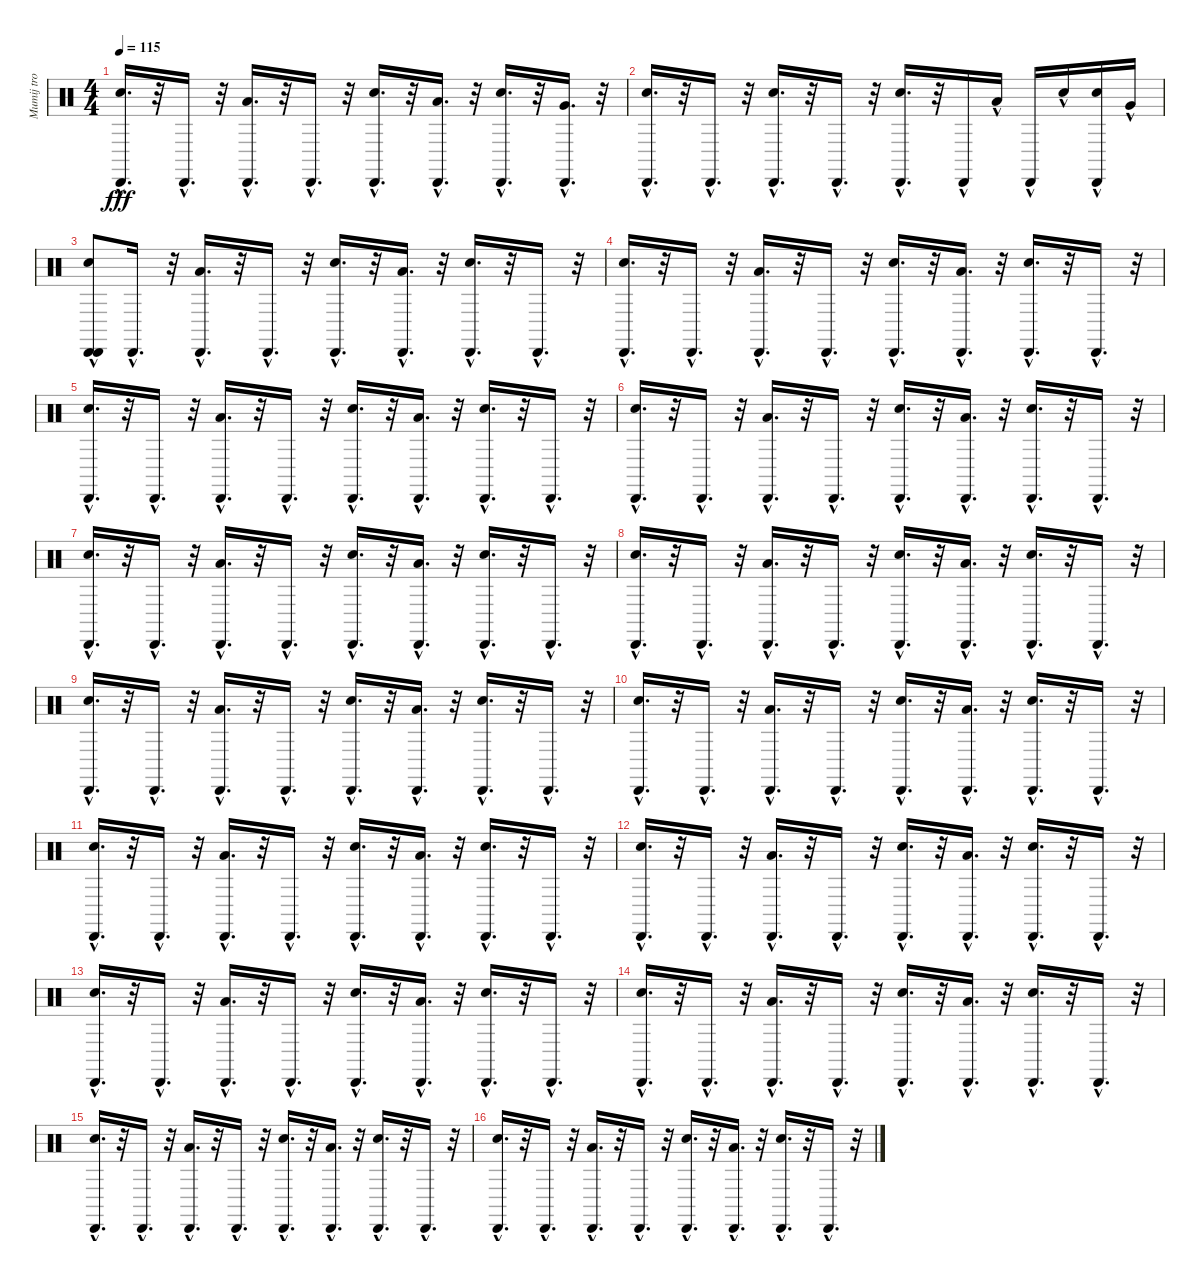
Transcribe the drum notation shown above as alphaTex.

\track (" Mumij troll" " Mumij tro") {instrument percussion}
\staff {score}
\articulation defaults
\ts (4 4)
\tempo 115
\clef neutral
\ks c
("Electric Snare (hit)"{hac} "Cabasa (hit)"{hac}).16{d dy fff} r.32 "Cabasa (hit)"{hac}.16{d} r.32 ("Low Tom (hit)"{hac} "Cabasa (hit)"{hac}).16{d} r.32 "Cabasa (hit)"{hac}.16{d} r.32 ("Electric Snare (hit)"{hac} "Cabasa (hit)"{hac}).16{d} r.32 ("Low Floor Tom (hit)"{hac} "Cabasa (hit)"{hac}).16{d} r.32 ("Snare (hit) 2"{hac} "Cabasa (hit)"{hac}).16{d} r.32 ("Very Low Tom (hit)"{hac} "Cabasa (hit)"{hac}).16{d} r.32 |
("Electric Snare (hit)"{hac} "Cabasa (hit)"{hac}).16{d} r.32 "Cabasa (hit)"{hac}.16{d} r.32 ("Snare (hit) 2"{hac} "Cabasa (hit)"{hac}).16{d} r.32 "Cabasa (hit)"{hac}.16{d} r.32 ("Electric Snare (hit)"{hac} "Cabasa (hit)"{hac}).16{d} r.32 "Cabasa (hit)"{hac}.16 "Low Floor Tom (hit)"{hac}.16 "Cabasa (hit)"{hac}.16 "Snare (hit) 2"{hac}.16 ("Electric Snare (hit)"{hac} "Cabasa (hit)"{hac}).16 "Very Low Tom (hit)"{hac}.16 |
("Cabasa (hit)" "Electric Snare (hit)"{hac} "Cabasa (hit)"{hac}).8 "Cabasa (hit)"{hac}.16{d} r.32 ("Low Tom (hit)"{hac} "Cabasa (hit)"{hac}).16{d} r.32 "Cabasa (hit)"{hac}.16{d} r.32 ("Electric Snare (hit)"{hac} "Cabasa (hit)"{hac}).16{d} r.32 ("Low Floor Tom (hit)"{hac} "Cabasa (hit)"{hac}).16{d} r.32 ("Snare (hit) 2"{hac} "Cabasa (hit)"{hac}).16{d} r.32 "Cabasa (hit)"{hac}.16{d} r.32 |
("Electric Snare (hit)"{hac} "Cabasa (hit)"{hac}).16{d} r.32 "Cabasa (hit)"{hac}.16{d} r.32 ("Low Tom (hit)"{hac} "Cabasa (hit)"{hac}).16{d} r.32 "Cabasa (hit)"{hac}.16{d} r.32 ("Electric Snare (hit)"{hac} "Cabasa (hit)"{hac}).16{d} r.32 ("Low Floor Tom (hit)"{hac} "Cabasa (hit)"{hac}).16{d} r.32 ("Snare (hit) 2"{hac} "Cabasa (hit)"{hac}).16{d} r.32 "Cabasa (hit)"{hac}.16{d} r.32 |
("Electric Snare (hit)"{hac} "Cabasa (hit)"{hac}).16{d} r.32 "Cabasa (hit)"{hac}.16{d} r.32 ("Low Tom (hit)"{hac} "Cabasa (hit)"{hac}).16{d} r.32 "Cabasa (hit)"{hac}.16{d} r.32 ("Electric Snare (hit)"{hac} "Cabasa (hit)"{hac}).16{d} r.32 ("Low Floor Tom (hit)"{hac} "Cabasa (hit)"{hac}).16{d} r.32 ("Snare (hit) 2"{hac} "Cabasa (hit)"{hac}).16{d} r.32 "Cabasa (hit)"{hac}.16{d} r.32 |
("Electric Snare (hit)"{hac} "Cabasa (hit)"{hac}).16{d} r.32 "Cabasa (hit)"{hac}.16{d} r.32 ("Low Tom (hit)"{hac} "Cabasa (hit)"{hac}).16{d} r.32 "Cabasa (hit)"{hac}.16{d} r.32 ("Electric Snare (hit)"{hac} "Cabasa (hit)"{hac}).16{d} r.32 ("Low Floor Tom (hit)"{hac} "Cabasa (hit)"{hac}).16{d} r.32 ("Snare (hit) 2"{hac} "Cabasa (hit)"{hac}).16{d} r.32 "Cabasa (hit)"{hac}.16{d} r.32 |
("Electric Snare (hit)"{hac} "Cabasa (hit)"{hac}).16{d} r.32 "Cabasa (hit)"{hac}.16{d} r.32 ("Low Tom (hit)"{hac} "Cabasa (hit)"{hac}).16{d} r.32 "Cabasa (hit)"{hac}.16{d} r.32 ("Electric Snare (hit)"{hac} "Cabasa (hit)"{hac}).16{d} r.32 ("Low Floor Tom (hit)"{hac} "Cabasa (hit)"{hac}).16{d} r.32 ("Snare (hit) 2"{hac} "Cabasa (hit)"{hac}).16{d} r.32 "Cabasa (hit)"{hac}.16{d} r.32 |
("Electric Snare (hit)"{hac} "Cabasa (hit)"{hac}).16{d} r.32 "Cabasa (hit)"{hac}.16{d} r.32 ("Low Tom (hit)"{hac} "Cabasa (hit)"{hac}).16{d} r.32 "Cabasa (hit)"{hac}.16{d} r.32 ("Electric Snare (hit)"{hac} "Cabasa (hit)"{hac}).16{d} r.32 ("Low Floor Tom (hit)"{hac} "Cabasa (hit)"{hac}).16{d} r.32 ("Snare (hit) 2"{hac} "Cabasa (hit)"{hac}).16{d} r.32 "Cabasa (hit)"{hac}.16{d} r.32 |
("Electric Snare (hit)"{hac} "Cabasa (hit)"{hac}).16{d} r.32 "Cabasa (hit)"{hac}.16{d} r.32 ("Low Tom (hit)"{hac} "Cabasa (hit)"{hac}).16{d} r.32 "Cabasa (hit)"{hac}.16{d} r.32 ("Electric Snare (hit)"{hac} "Cabasa (hit)"{hac}).16{d} r.32 ("Low Floor Tom (hit)"{hac} "Cabasa (hit)"{hac}).16{d} r.32 ("Snare (hit) 2"{hac} "Cabasa (hit)"{hac}).16{d} r.32 "Cabasa (hit)"{hac}.16{d} r.32 |
("Electric Snare (hit)"{hac} "Cabasa (hit)"{hac}).16{d} r.32 "Cabasa (hit)"{hac}.16{d} r.32 ("Low Tom (hit)"{hac} "Cabasa (hit)"{hac}).16{d} r.32 "Cabasa (hit)"{hac}.16{d} r.32 ("Electric Snare (hit)"{hac} "Cabasa (hit)"{hac}).16{d} r.32 ("Low Floor Tom (hit)"{hac} "Cabasa (hit)"{hac}).16{d} r.32 ("Snare (hit) 2"{hac} "Cabasa (hit)"{hac}).16{d} r.32 "Cabasa (hit)"{hac}.16{d} r.32 |
("Electric Snare (hit)"{hac} "Cabasa (hit)"{hac}).16{d} r.32 "Cabasa (hit)"{hac}.16{d} r.32 ("Low Tom (hit)"{hac} "Cabasa (hit)"{hac}).16{d} r.32 "Cabasa (hit)"{hac}.16{d} r.32 ("Electric Snare (hit)"{hac} "Cabasa (hit)"{hac}).16{d} r.32 ("Low Floor Tom (hit)"{hac} "Cabasa (hit)"{hac}).16{d} r.32 ("Snare (hit) 2"{hac} "Cabasa (hit)"{hac}).16{d} r.32 "Cabasa (hit)"{hac}.16{d} r.32 |
("Electric Snare (hit)"{hac} "Cabasa (hit)"{hac}).16{d} r.32 "Cabasa (hit)"{hac}.16{d} r.32 ("Low Tom (hit)"{hac} "Cabasa (hit)"{hac}).16{d} r.32 "Cabasa (hit)"{hac}.16{d} r.32 ("Electric Snare (hit)"{hac} "Cabasa (hit)"{hac}).16{d} r.32 ("Low Floor Tom (hit)"{hac} "Cabasa (hit)"{hac}).16{d} r.32 ("Snare (hit) 2"{hac} "Cabasa (hit)"{hac}).16{d} r.32 "Cabasa (hit)"{hac}.16{d} r.32 |
("Electric Snare (hit)"{hac} "Cabasa (hit)"{hac}).16{d} r.32 "Cabasa (hit)"{hac}.16{d} r.32 ("Low Tom (hit)"{hac} "Cabasa (hit)"{hac}).16{d} r.32 "Cabasa (hit)"{hac}.16{d} r.32 ("Electric Snare (hit)"{hac} "Cabasa (hit)"{hac}).16{d} r.32 ("Low Floor Tom (hit)"{hac} "Cabasa (hit)"{hac}).16{d} r.32 ("Snare (hit) 2"{hac} "Cabasa (hit)"{hac}).16{d} r.32 "Cabasa (hit)"{hac}.16{d} r.32 |
("Electric Snare (hit)"{hac} "Cabasa (hit)"{hac}).16{d} r.32 "Cabasa (hit)"{hac}.16{d} r.32 ("Low Tom (hit)"{hac} "Cabasa (hit)"{hac}).16{d} r.32 "Cabasa (hit)"{hac}.16{d} r.32 ("Electric Snare (hit)"{hac} "Cabasa (hit)"{hac}).16{d} r.32 ("Low Floor Tom (hit)"{hac} "Cabasa (hit)"{hac}).16{d} r.32 ("Snare (hit) 2"{hac} "Cabasa (hit)"{hac}).16{d} r.32 "Cabasa (hit)"{hac}.16{d} r.32 |
("Electric Snare (hit)"{hac} "Cabasa (hit)"{hac}).16{d} r.32 "Cabasa (hit)"{hac}.16{d} r.32 ("Low Tom (hit)"{hac} "Cabasa (hit)"{hac}).16{d} r.32 "Cabasa (hit)"{hac}.16{d} r.32 ("Electric Snare (hit)"{hac} "Cabasa (hit)"{hac}).16{d} r.32 ("Low Floor Tom (hit)"{hac} "Cabasa (hit)"{hac}).16{d} r.32 ("Snare (hit) 2"{hac} "Cabasa (hit)"{hac}).16{d} r.32 "Cabasa (hit)"{hac}.16{d} r.32 |
("Electric Snare (hit)"{hac} "Cabasa (hit)"{hac}).16{d} r.32 "Cabasa (hit)"{hac}.16{d} r.32 ("Low Tom (hit)"{hac} "Cabasa (hit)"{hac}).16{d} r.32 "Cabasa (hit)"{hac}.16{d} r.32 ("Electric Snare (hit)"{hac} "Cabasa (hit)"{hac}).16{d} r.32 ("Low Floor Tom (hit)"{hac} "Cabasa (hit)"{hac}).16{d} r.32 ("Snare (hit) 2"{hac} "Cabasa (hit)"{hac}).16{d} r.32 "Cabasa (hit)"{hac}.16{d} r.32
